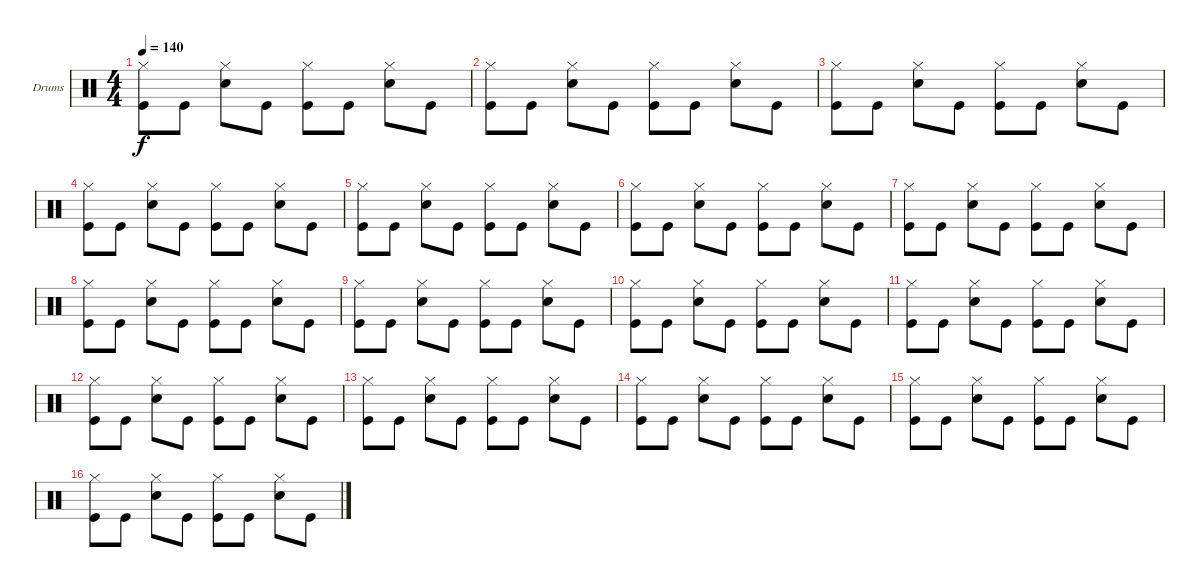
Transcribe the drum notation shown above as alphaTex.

\defaultSystemsLayout 4
\bracketExtendMode groupsimilarinstruments
\firstSystemTrackNameOrientation horizontal
\otherSystemsTrackNameOrientation horizontal
\track ("Drumkit" "Drums") {instrument percussion}
\staff {score}
\articulation defaults
\ts (4 4)
\tempo 140
\clef neutral
\ks aminor
("Kick (hit)" "Hi-Hat (closed)").8{dy f} "Kick (hit)".8 ("Snare (hit) 2" "Hi-Hat (closed)").8 "Kick (hit)".8 ("Kick (hit)" "Hi-Hat (closed)").8 "Kick (hit)".8 ("Snare (hit) 2" "Hi-Hat (closed)").8 "Kick (hit)".8 |
("Kick (hit)" "Hi-Hat (closed)").8 "Kick (hit)".8 ("Snare (hit) 2" "Hi-Hat (closed)").8 "Kick (hit)".8 ("Kick (hit)" "Hi-Hat (closed)").8 "Kick (hit)".8 ("Snare (hit) 2" "Hi-Hat (closed)").8 "Kick (hit)".8 |
("Kick (hit)" "Hi-Hat (closed)").8 "Kick (hit)".8 ("Snare (hit) 2" "Hi-Hat (closed)").8 "Kick (hit)".8 ("Kick (hit)" "Hi-Hat (closed)").8 "Kick (hit)".8 ("Snare (hit) 2" "Hi-Hat (closed)").8 "Kick (hit)".8 |
("Kick (hit)" "Hi-Hat (closed)").8 "Kick (hit)".8 ("Snare (hit) 2" "Hi-Hat (closed)").8 "Kick (hit)".8 ("Kick (hit)" "Hi-Hat (closed)").8 "Kick (hit)".8 ("Snare (hit) 2" "Hi-Hat (closed)").8 "Kick (hit)".8 |
("Kick (hit)" "Hi-Hat (closed)").8 "Kick (hit)".8 ("Snare (hit) 2" "Hi-Hat (closed)").8 "Kick (hit)".8 ("Kick (hit)" "Hi-Hat (closed)").8 "Kick (hit)".8 ("Snare (hit) 2" "Hi-Hat (closed)").8 "Kick (hit)".8 |
("Kick (hit)" "Hi-Hat (closed)").8 "Kick (hit)".8 ("Snare (hit) 2" "Hi-Hat (closed)").8 "Kick (hit)".8 ("Kick (hit)" "Hi-Hat (closed)").8 "Kick (hit)".8 ("Snare (hit) 2" "Hi-Hat (closed)").8 "Kick (hit)".8 |
("Kick (hit)" "Hi-Hat (closed)").8 "Kick (hit)".8 ("Snare (hit) 2" "Hi-Hat (closed)").8 "Kick (hit)".8 ("Kick (hit)" "Hi-Hat (closed)").8 "Kick (hit)".8 ("Snare (hit) 2" "Hi-Hat (closed)").8 "Kick (hit)".8 |
("Kick (hit)" "Hi-Hat (closed)").8 "Kick (hit)".8 ("Snare (hit) 2" "Hi-Hat (closed)").8 "Kick (hit)".8 ("Kick (hit)" "Hi-Hat (closed)").8 "Kick (hit)".8 ("Snare (hit) 2" "Hi-Hat (closed)").8 "Kick (hit)".8 |
("Kick (hit)" "Hi-Hat (closed)").8 "Kick (hit)".8 ("Snare (hit) 2" "Hi-Hat (closed)").8 "Kick (hit)".8 ("Kick (hit)" "Hi-Hat (closed)").8 "Kick (hit)".8 ("Snare (hit) 2" "Hi-Hat (closed)").8 "Kick (hit)".8 |
("Kick (hit)" "Hi-Hat (closed)").8 "Kick (hit)".8 ("Snare (hit) 2" "Hi-Hat (closed)").8 "Kick (hit)".8 ("Kick (hit)" "Hi-Hat (closed)").8 "Kick (hit)".8 ("Snare (hit) 2" "Hi-Hat (closed)").8 "Kick (hit)".8 |
("Kick (hit)" "Hi-Hat (closed)").8 "Kick (hit)".8 ("Snare (hit) 2" "Hi-Hat (closed)").8 "Kick (hit)".8 ("Kick (hit)" "Hi-Hat (closed)").8 "Kick (hit)".8 ("Snare (hit) 2" "Hi-Hat (closed)").8 "Kick (hit)".8 |
("Kick (hit)" "Hi-Hat (closed)").8 "Kick (hit)".8 ("Snare (hit) 2" "Hi-Hat (closed)").8 "Kick (hit)".8 ("Kick (hit)" "Hi-Hat (closed)").8 "Kick (hit)".8 ("Snare (hit) 2" "Hi-Hat (closed)").8 "Kick (hit)".8 |
("Kick (hit)" "Hi-Hat (closed)").8 "Kick (hit)".8 ("Snare (hit) 2" "Hi-Hat (closed)").8 "Kick (hit)".8 ("Kick (hit)" "Hi-Hat (closed)").8 "Kick (hit)".8 ("Snare (hit) 2" "Hi-Hat (closed)").8 "Kick (hit)".8 |
("Kick (hit)" "Hi-Hat (closed)").8 "Kick (hit)".8 ("Snare (hit) 2" "Hi-Hat (closed)").8 "Kick (hit)".8 ("Kick (hit)" "Hi-Hat (closed)").8 "Kick (hit)".8 ("Snare (hit) 2" "Hi-Hat (closed)").8 "Kick (hit)".8 |
("Kick (hit)" "Hi-Hat (closed)").8 "Kick (hit)".8 ("Snare (hit) 2" "Hi-Hat (closed)").8 "Kick (hit)".8 ("Kick (hit)" "Hi-Hat (closed)").8 "Kick (hit)".8 ("Snare (hit) 2" "Hi-Hat (closed)").8 "Kick (hit)".8 |
("Kick (hit)" "Hi-Hat (closed)").8 "Kick (hit)".8 ("Snare (hit) 2" "Hi-Hat (closed)").8 "Kick (hit)".8 ("Kick (hit)" "Hi-Hat (closed)").8 "Kick (hit)".8 ("Snare (hit) 2" "Hi-Hat (closed)").8 "Kick (hit)".8
